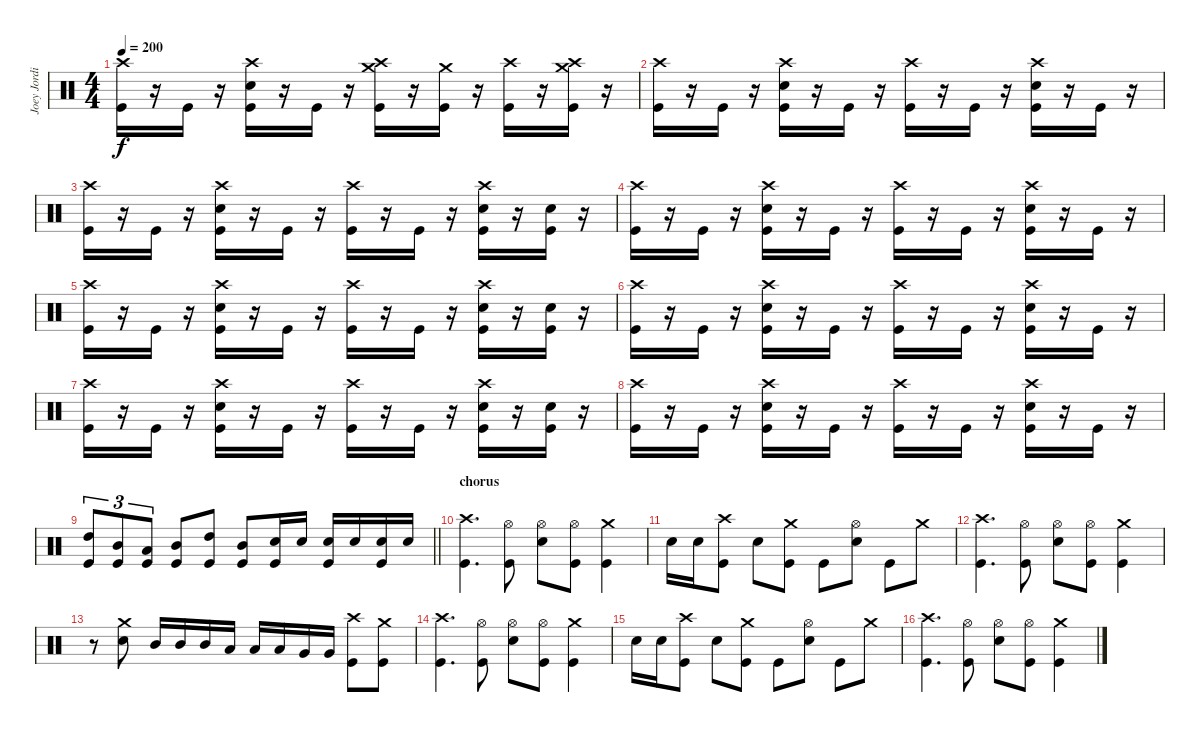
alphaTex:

\track ("Joey Jordison" "Joey Jordi") {instrument percussion}
\staff {score}
\articulation defaults
\ts (4 4)
\tempo 200
\clef neutral
\ks c
("Crash high (hit)" "Kick (hit)").16{dy f} r.16 "Kick (hit)".16 r.16 ("Crash high (hit)" "Electric Snare (hit)" "Kick (hit)").16 r.16 "Kick (hit)".16 r.16 ("Crash medium (hit)" "Crash high (hit)" "Kick (hit)").16 r.16 ("Crash medium (hit)" "Kick (hit)").16 r.16 ("Crash high (hit)" "Kick (hit)").16 r.16 ("Crash high (hit)" "Crash medium (hit)" "Kick (hit)").16 r.16 |
("Crash high (hit)" "Kick (hit)").16 r.16 "Kick (hit)".16 r.16 ("Crash high (hit)" "Electric Snare (hit)" "Kick (hit)").16 r.16 "Kick (hit)".16 r.16 ("Crash high (hit)" "Kick (hit)").16 r.16 "Kick (hit)".16 r.16 ("Crash high (hit)" "Electric Snare (hit)" "Kick (hit)").16 r.16 "Kick (hit)".16 r.16 |
("Crash high (hit)" "Kick (hit)").16 r.16 "Kick (hit)".16 r.16 ("Crash high (hit)" "Electric Snare (hit)" "Kick (hit)").16 r.16 "Kick (hit)".16 r.16 ("Crash high (hit)" "Kick (hit)").16 r.16 "Kick (hit)".16 r.16 ("Crash high (hit)" "Electric Snare (hit)" "Kick (hit)").16 r.16 ("Electric Snare (hit)" "Kick (hit)").16 r.16 |
("Crash high (hit)" "Kick (hit)").16 r.16 "Kick (hit)".16 r.16 ("Crash high (hit)" "Electric Snare (hit)" "Kick (hit)").16 r.16 "Kick (hit)".16 r.16 ("Crash high (hit)" "Kick (hit)").16 r.16 "Kick (hit)".16 r.16 ("Crash high (hit)" "Electric Snare (hit)" "Kick (hit)").16 r.16 "Kick (hit)".16 r.16 |
("Crash high (hit)" "Kick (hit)").16 r.16 "Kick (hit)".16 r.16 ("Crash high (hit)" "Electric Snare (hit)" "Kick (hit)").16 r.16 "Kick (hit)".16 r.16 ("Crash high (hit)" "Kick (hit)").16 r.16 "Kick (hit)".16 r.16 ("Crash high (hit)" "Electric Snare (hit)" "Kick (hit)").16 r.16 ("Electric Snare (hit)" "Kick (hit)").16 r.16 |
("Crash high (hit)" "Kick (hit)").16 r.16 "Kick (hit)".16 r.16 ("Crash high (hit)" "Electric Snare (hit)" "Kick (hit)").16 r.16 "Kick (hit)".16 r.16 ("Crash high (hit)" "Kick (hit)").16 r.16 "Kick (hit)".16 r.16 ("Crash high (hit)" "Electric Snare (hit)" "Kick (hit)").16 r.16 "Kick (hit)".16 r.16 |
("Crash high (hit)" "Kick (hit)").16 r.16 "Kick (hit)".16 r.16 ("Crash high (hit)" "Electric Snare (hit)" "Kick (hit)").16 r.16 "Kick (hit)".16 r.16 ("Crash high (hit)" "Kick (hit)").16 r.16 "Kick (hit)".16 r.16 ("Crash high (hit)" "Electric Snare (hit)" "Kick (hit)").16 r.16 ("Electric Snare (hit)" "Kick (hit)").16 r.16 |
("Crash high (hit)" "Kick (hit)").16 r.16 "Kick (hit)".16 r.16 ("Crash high (hit)" "Electric Snare (hit)" "Kick (hit)").16 r.16 "Kick (hit)".16 r.16 ("Crash high (hit)" "Kick (hit)").16 r.16 "Kick (hit)".16 r.16 ("Crash high (hit)" "Electric Snare (hit)" "Kick (hit)").16 r.16 "Kick (hit)".16 r.16 |
\barLineRight lightlight
("High Tom (hit)" "Kick (hit)").8{tu (3 2)} ("Mid Tom (hit)" "Kick (hit)").8{tu (3 2)} ("Low Tom (hit)" "Kick (hit)").8{tu (3 2)} ("Mid Tom (hit)" "Kick (hit)").8 ("High Tom (hit)" "Kick (hit)").8 ("Mid Tom (hit)" "Kick (hit)").8 ("Electric Snare (hit)" "Kick (hit)").16 "Electric Snare (hit)".16 ("Electric Snare (hit)" "Kick (hit)").16 "Electric Snare (hit)".16 ("Electric Snare (hit)" "Kick (hit)").16 "Electric Snare (hit)".16 |
\section ("" "chorus")
("Crash high (hit)" "Kick (hit)").4{d} ("Hi-Hat (open)" "Kick (hit)").8 ("Hi-Hat (open)" "Electric Snare (hit)").8 ("Hi-Hat (open)" "Kick (hit)").8 ("Crash medium (hit)" "Kick (hit)").4 |
"Electric Snare (hit)".16 "Electric Snare (hit)".16 ("Crash high (hit)" "Kick (hit)").8 "Electric Snare (hit)".8 ("Crash medium (hit)" "Kick (hit)").8 "Kick (hit)".8 ("Hi-Hat (open)" "Electric Snare (hit)").8 "Kick (hit)".8 "Crash medium (hit)".8 |
("Crash high (hit)" "Kick (hit)").4{d} ("Hi-Hat (open)" "Kick (hit)").8 ("Hi-Hat (open)" "Electric Snare (hit)").8 ("Hi-Hat (open)" "Kick (hit)").8 ("Crash medium (hit)" "Kick (hit)").4 |
r.8 ("Crash medium (hit)" "Electric Snare (hit)").8 "Mid Tom (hit)".16 "Mid Tom (hit)".16 "Mid Tom (hit)".16 "Low Tom (hit)".16 "Low Tom (hit)".16 "Low Tom (hit)".16 "Very Low Tom (hit)".16 "Very Low Tom (hit)".16 ("Crash high (hit)" "Kick (hit)").8 ("Crash medium (hit)" "Kick (hit)").8 |
("Crash high (hit)" "Kick (hit)").4{d} ("Hi-Hat (open)" "Kick (hit)").8 ("Hi-Hat (open)" "Electric Snare (hit)").8 ("Hi-Hat (open)" "Kick (hit)").8 ("Crash medium (hit)" "Kick (hit)").4 |
"Electric Snare (hit)".16 "Electric Snare (hit)".16 ("Crash high (hit)" "Kick (hit)").8 "Electric Snare (hit)".8 ("Crash medium (hit)" "Kick (hit)").8 "Kick (hit)".8 ("Hi-Hat (open)" "Electric Snare (hit)").8 "Kick (hit)".8 "Crash medium (hit)".8 |
("Crash high (hit)" "Kick (hit)").4{d} ("Hi-Hat (open)" "Kick (hit)").8 ("Hi-Hat (open)" "Electric Snare (hit)").8 ("Hi-Hat (open)" "Kick (hit)").8 ("Crash medium (hit)" "Kick (hit)").4
